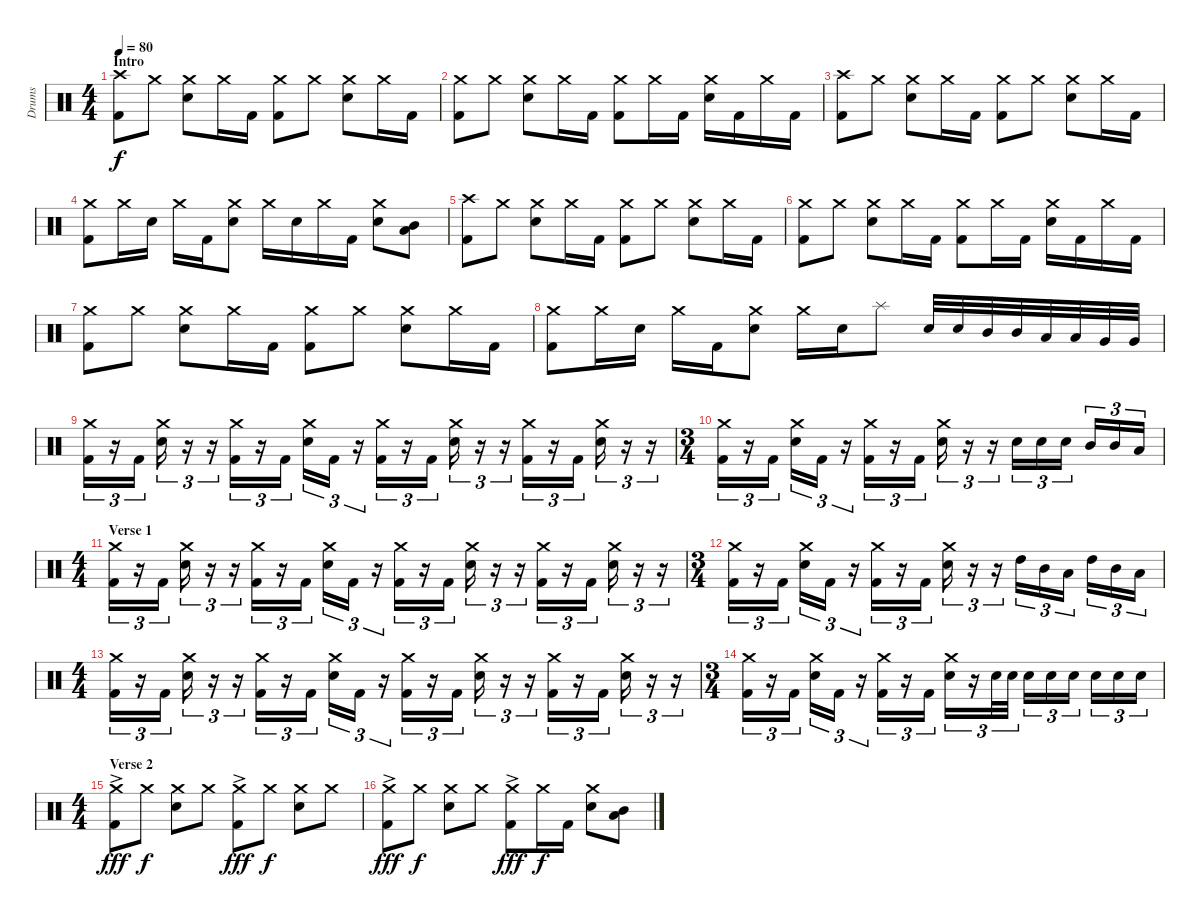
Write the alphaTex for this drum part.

\track ("Drums" "Drums") {instrument percussion}
\staff {score}
\articulation defaults
\ts (4 4)
\section ("" "Intro")
\tempo 80
\clef neutral
\ks c
("Crash high (hit)" "Kick (hit) 2").8{dy f} "Crash medium (hit)".8 ("Crash medium (hit)" "Electric Snare (hit)").8 "Crash medium (hit)".16 "Kick (hit) 2".16 ("Crash medium (hit)" "Kick (hit) 2").8 "Crash medium (hit)".8 ("Crash medium (hit)" "Electric Snare (hit)").8 "Crash medium (hit)".16 "Kick (hit) 2".16 |
("Crash medium (hit)" "Kick (hit) 2").8 "Crash medium (hit)".8 ("Crash medium (hit)" "Electric Snare (hit)").8 "Crash medium (hit)".16 "Kick (hit) 2".16 ("Crash medium (hit)" "Kick (hit) 2").8 "Crash medium (hit)".16 "Kick (hit) 2".16 ("Crash medium (hit)" "Electric Snare (hit)").16 "Kick (hit) 2".16 "Crash medium (hit)".16 "Kick (hit) 2".16 |
("Crash high (hit)" "Kick (hit) 2").8 "Crash medium (hit)".8 ("Crash medium (hit)" "Electric Snare (hit)").8 "Crash medium (hit)".16 "Kick (hit) 2".16 ("Crash medium (hit)" "Kick (hit) 2").8 "Crash medium (hit)".8 ("Crash medium (hit)" "Electric Snare (hit)").8 "Crash medium (hit)".16 "Kick (hit) 2".16 |
("Crash medium (hit)" "Kick (hit) 2").8 "Crash medium (hit)".16 "Electric Snare (hit)".16 "Crash medium (hit)".16 "Kick (hit) 2".16 ("Crash medium (hit)" "Electric Snare (hit)").8 "Crash medium (hit)".16 "Electric Snare (hit)".16 "Crash medium (hit)".16 "Kick (hit) 2".16 ("Crash medium (hit)" "Electric Snare (hit)").8 ("Mid Tom (hit)" "Low Tom (hit)").8 |
("Crash high (hit)" "Kick (hit) 2").8 "Crash medium (hit)".8 ("Crash medium (hit)" "Electric Snare (hit)").8 "Crash medium (hit)".16 "Kick (hit) 2".16 ("Crash medium (hit)" "Kick (hit) 2").8 "Crash medium (hit)".8 ("Crash medium (hit)" "Electric Snare (hit)").8 "Crash medium (hit)".16 "Kick (hit) 2".16 |
("Crash medium (hit)" "Kick (hit) 2").8 "Crash medium (hit)".8 ("Crash medium (hit)" "Electric Snare (hit)").8 "Crash medium (hit)".16 "Kick (hit) 2".16 ("Crash medium (hit)" "Kick (hit) 2").8 "Crash medium (hit)".16 "Kick (hit) 2".16 ("Crash medium (hit)" "Electric Snare (hit)").16 "Kick (hit) 2".16 "Crash medium (hit)".16 "Kick (hit) 2".16 |
("Crash medium (hit)" "Kick (hit) 2").8 "Crash medium (hit)".8 ("Crash medium (hit)" "Electric Snare (hit)").8 "Crash medium (hit)".16 "Kick (hit) 2".16 ("Crash medium (hit)" "Kick (hit) 2").8 "Crash medium (hit)".8 ("Crash medium (hit)" "Electric Snare (hit)").8 "Crash medium (hit)".16 "Kick (hit) 2".16 |
("Crash medium (hit)" "Kick (hit) 2").8 "Crash medium (hit)".16 "Electric Snare (hit)".16 "Crash medium (hit)".16 "Kick (hit) 2".16 ("Crash medium (hit)" "Electric Snare (hit)").8 "Crash medium (hit)".16 "Electric Snare (hit)".16 "Splash (hit)".8 "Electric Snare (hit)".32 "Electric Snare (hit)".32 "Mid Tom (hit)".32 "Mid Tom (hit)".32 "Low Tom (hit)".32 "Low Tom (hit)".32 "Very Low Tom (hit)".32 "Very Low Tom (hit)".32 |
("Crash medium (hit)" "Kick (hit) 2").16{tu (3 2)} r.16{tu (3 2)} "Kick (hit) 2".16{tu (3 2)} ("Crash medium (hit)" "Electric Snare (hit)").16{tu (3 2)} r.16{tu (3 2)} r.16{tu (3 2)} ("Crash medium (hit)" "Kick (hit) 2").16{tu (3 2)} r.16{tu (3 2)} "Kick (hit) 2".16{tu (3 2)} ("Crash medium (hit)" "Electric Snare (hit)").16{tu (3 2)} "Kick (hit) 2".16{tu (3 2)} r.16{tu (3 2)} ("Crash medium (hit)" "Kick (hit) 2").16{tu (3 2)} r.16{tu (3 2)} "Kick (hit) 2".16{tu (3 2)} ("Crash medium (hit)" "Electric Snare (hit)").16{tu (3 2)} r.16{tu (3 2)} r.16{tu (3 2)} ("Crash medium (hit)" "Kick (hit) 2").16{tu (3 2)} r.16{tu (3 2)} "Kick (hit) 2".16{tu (3 2)} ("Crash medium (hit)" "Electric Snare (hit)").16{tu (3 2)} r.16{tu (3 2)} r.16{tu (3 2)} |
\ts (3 4)
("Crash medium (hit)" "Kick (hit) 2").16{tu (3 2)} r.16{tu (3 2)} "Kick (hit) 2".16{tu (3 2)} ("Crash medium (hit)" "Electric Snare (hit)").16{tu (3 2)} "Kick (hit) 2".16{tu (3 2)} r.16{tu (3 2)} ("Crash medium (hit)" "Kick (hit) 2").16{tu (3 2)} r.16{tu (3 2)} "Kick (hit) 2".16{tu (3 2)} ("Crash medium (hit)" "Electric Snare (hit)").16{tu (3 2)} r.16{tu (3 2)} r.16{tu (3 2)} "Electric Snare (hit)".16{tu (3 2)} "Electric Snare (hit)".16{tu (3 2)} "Electric Snare (hit)".16{tu (3 2)} "Mid Tom (hit)".16{tu (3 2)} "Mid Tom (hit)".16{tu (3 2)} "Low Tom (hit)".16{tu (3 2)} |
\ts (4 4)
\section ("" "Verse 1")
("Crash medium (hit)" "Kick (hit) 2").16{tu (3 2)} r.16{tu (3 2)} "Kick (hit) 2".16{tu (3 2)} ("Crash medium (hit)" "Electric Snare (hit)").16{tu (3 2)} r.16{tu (3 2)} r.16{tu (3 2)} ("Crash medium (hit)" "Kick (hit) 2").16{tu (3 2)} r.16{tu (3 2)} "Kick (hit) 2".16{tu (3 2)} ("Crash medium (hit)" "Electric Snare (hit)").16{tu (3 2)} "Kick (hit) 2".16{tu (3 2)} r.16{tu (3 2)} ("Crash medium (hit)" "Kick (hit) 2").16{tu (3 2)} r.16{tu (3 2)} "Kick (hit) 2".16{tu (3 2)} ("Crash medium (hit)" "Electric Snare (hit)").16{tu (3 2)} r.16{tu (3 2)} r.16{tu (3 2)} ("Crash medium (hit)" "Kick (hit) 2").16{tu (3 2)} r.16{tu (3 2)} "Kick (hit) 2".16{tu (3 2)} ("Crash medium (hit)" "Electric Snare (hit)").16{tu (3 2)} r.16{tu (3 2)} r.16{tu (3 2)} |
\ts (3 4)
("Crash medium (hit)" "Kick (hit) 2").16{tu (3 2)} r.16{tu (3 2)} "Kick (hit) 2".16{tu (3 2)} ("Crash medium (hit)" "Electric Snare (hit)").16{tu (3 2)} "Kick (hit) 2".16{tu (3 2)} r.16{tu (3 2)} ("Crash medium (hit)" "Kick (hit) 2").16{tu (3 2)} r.16{tu (3 2)} "Kick (hit) 2".16{tu (3 2)} ("Crash medium (hit)" "Electric Snare (hit)").16{tu (3 2)} r.16{tu (3 2)} r.16{tu (3 2)} "High Tom (hit)".16{tu (3 2)} "Mid Tom (hit)".16{tu (3 2)} "Low Tom (hit)".16{tu (3 2)} "High Tom (hit)".16{tu (3 2)} "Mid Tom (hit)".16{tu (3 2)} "Low Tom (hit)".16{tu (3 2)} |
\ts (4 4)
("Crash medium (hit)" "Kick (hit) 2").16{tu (3 2)} r.16{tu (3 2)} "Kick (hit) 2".16{tu (3 2)} ("Crash medium (hit)" "Electric Snare (hit)").16{tu (3 2)} r.16{tu (3 2)} r.16{tu (3 2)} ("Crash medium (hit)" "Kick (hit) 2").16{tu (3 2)} r.16{tu (3 2)} "Kick (hit) 2".16{tu (3 2)} ("Crash medium (hit)" "Electric Snare (hit)").16{tu (3 2)} "Kick (hit) 2".16{tu (3 2)} r.16{tu (3 2)} ("Crash medium (hit)" "Kick (hit) 2").16{tu (3 2)} r.16{tu (3 2)} "Kick (hit) 2".16{tu (3 2)} ("Crash medium (hit)" "Electric Snare (hit)").16{tu (3 2)} r.16{tu (3 2)} r.16{tu (3 2)} ("Crash medium (hit)" "Kick (hit) 2").16{tu (3 2)} r.16{tu (3 2)} "Kick (hit) 2".16{tu (3 2)} ("Crash medium (hit)" "Electric Snare (hit)").16{tu (3 2)} r.16{tu (3 2)} r.16{tu (3 2)} |
\ts (3 4)
("Crash medium (hit)" "Kick (hit) 2").16{tu (3 2)} r.16{tu (3 2)} "Kick (hit) 2".16{tu (3 2)} ("Crash medium (hit)" "Electric Snare (hit)").16{tu (3 2)} "Kick (hit) 2".16{tu (3 2)} r.16{tu (3 2)} ("Crash medium (hit)" "Kick (hit) 2").16{tu (3 2)} r.16{tu (3 2)} "Kick (hit) 2".16{tu (3 2)} ("Crash medium (hit)" "Electric Snare (hit)").16{tu (3 2)} r.16{tu (3 2)} "Electric Snare (hit)".32{tu (3 2)} "Electric Snare (hit)".32{tu (3 2)} "Electric Snare (hit)".16{tu (3 2)} "Electric Snare (hit)".16{tu (3 2)} "Electric Snare (hit)".16{tu (3 2)} "Electric Snare (hit)".16{tu (3 2)} "Electric Snare (hit)".16{tu (3 2)} "Electric Snare (hit)".16{tu (3 2)} |
\ts (4 4)
\section ("" "Verse 2")
("Crash medium (hit)"{ac} "Kick (hit) 2").8{dy fff} "Crash medium (hit)".8{dy f} ("Crash medium (hit)" "Electric Snare (hit)").8 "Crash medium (hit)".8 ("Crash medium (hit)"{ac} "Kick (hit) 2").8{dy fff} "Crash medium (hit)".8{dy f} ("Crash medium (hit)" "Electric Snare (hit)").8 "Crash medium (hit)".8 |
("Crash medium (hit)"{ac} "Kick (hit) 2").8{dy fff} "Crash medium (hit)".8{dy f} ("Crash medium (hit)" "Electric Snare (hit)").8 "Crash medium (hit)".8 ("Crash medium (hit)"{ac} "Kick (hit) 2").8{dy fff} "Crash medium (hit)".16{dy f} "Kick (hit) 2".16 ("Crash medium (hit)" "Electric Snare (hit)").8 ("Mid Tom (hit)" "Low Tom (hit)").8
